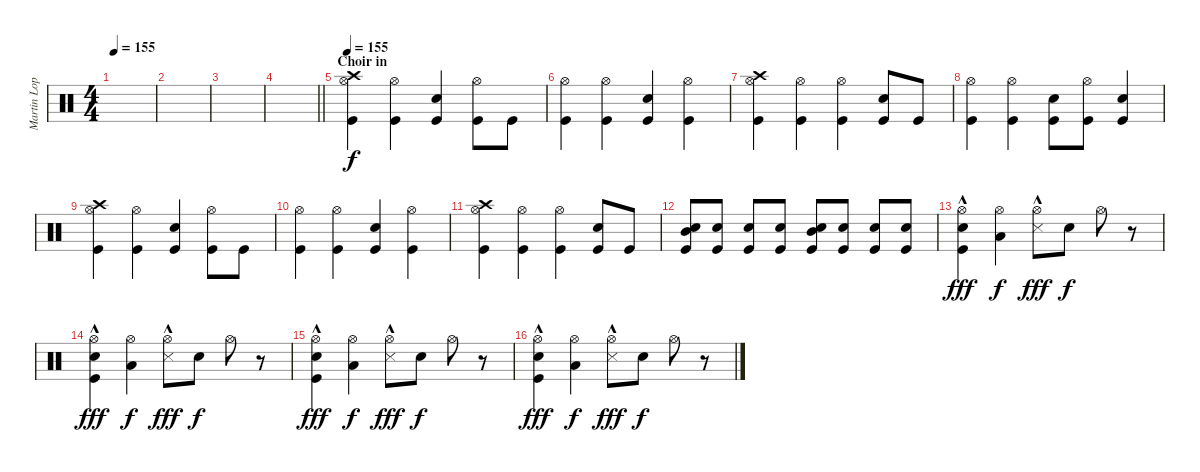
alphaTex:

\track ("Martin Lopez" "Martin Lop") {instrument percussion}
\staff {score}
\articulation defaults
\ts (4 4)
\tempo 155
\clef neutral
\ks c
|
|
|
\barLineRight lightlight
|
\section ("" "Choir in")
\tempo 155
("Crash high (hit)" "Hi-Hat (open)" "Kick (hit)").4{dy f} ("Hi-Hat (open)" "Kick (hit)").4 ("Electric Snare (hit)" "Kick (hit)").4 ("Hi-Hat (open)" "Kick (hit)").8 "Kick (hit)".8 |
("Hi-Hat (open)" "Kick (hit)").4 ("Hi-Hat (open)" "Kick (hit)").4 ("Electric Snare (hit)" "Kick (hit)").4 ("Hi-Hat (open)" "Kick (hit)").4 |
("Crash high (hit)" "Hi-Hat (open)" "Kick (hit)").4 ("Hi-Hat (open)" "Kick (hit)").4 ("Hi-Hat (open)" "Kick (hit)").4 ("Electric Snare (hit)" "Kick (hit)").8 "Kick (hit)".8 |
("Hi-Hat (open)" "Kick (hit)").4 ("Hi-Hat (open)" "Kick (hit)").4 ("Electric Snare (hit)" "Kick (hit)").8 ("Hi-Hat (open)" "Kick (hit)").8 ("Electric Snare (hit)" "Kick (hit)").4 |
("Crash high (hit)" "Hi-Hat (open)" "Kick (hit)").4 ("Hi-Hat (open)" "Kick (hit)").4 ("Electric Snare (hit)" "Kick (hit)").4 ("Hi-Hat (open)" "Kick (hit)").8 "Kick (hit)".8 |
("Hi-Hat (open)" "Kick (hit)").4 ("Hi-Hat (open)" "Kick (hit)").4 ("Electric Snare (hit)" "Kick (hit)").4 ("Hi-Hat (open)" "Kick (hit)").4 |
("Crash high (hit)" "Hi-Hat (open)" "Kick (hit)").4 ("Hi-Hat (open)" "Kick (hit)").4 ("Hi-Hat (open)" "Kick (hit)").4 ("Electric Snare (hit)" "Kick (hit)").8 "Kick (hit)".8 |
("Mid Tom (hit)" "Electric Snare (hit)" "Kick (hit)").8 ("Electric Snare (hit)" "Kick (hit)").8 ("Electric Snare (hit)" "Kick (hit)").8 ("Electric Snare (hit)" "Kick (hit)").8 ("Mid Tom (hit)" "Electric Snare (hit)" "Kick (hit)").8 ("Electric Snare (hit)" "Kick (hit)").8 ("Electric Snare (hit)" "Kick (hit)").8 ("Electric Snare (hit)" "Kick (hit)").8 |
("Hi-Hat (open)" "Electric Snare (hit)" "Kick (hit)"{hac}).4{dy fff} ("Hi-Hat (open)" "Low Tom (hit)").4{dy f} ("Hi-Hat (open)"{hac} "Snare (side stick) 3"{hac}).8{dy fff} "Electric Snare (hit)".8{dy f} "Hi-Hat (open)".8 r.8 |
("Hi-Hat (open)" "Electric Snare (hit)" "Kick (hit)"{hac}).4{dy fff} ("Hi-Hat (open)" "Low Tom (hit)").4{dy f} ("Hi-Hat (open)"{hac} "Snare (side stick) 3"{hac}).8{dy fff} "Electric Snare (hit)".8{dy f} "Hi-Hat (open)".8 r.8 |
("Hi-Hat (open)" "Electric Snare (hit)" "Kick (hit)"{hac}).4{dy fff} ("Hi-Hat (open)" "Low Tom (hit)").4{dy f} ("Hi-Hat (open)"{hac} "Snare (side stick) 3"{hac}).8{dy fff} "Electric Snare (hit)".8{dy f} "Hi-Hat (open)".8 r.8 |
("Hi-Hat (open)" "Electric Snare (hit)" "Kick (hit)"{hac}).4{dy fff} ("Hi-Hat (open)" "Low Tom (hit)").4{dy f} ("Hi-Hat (open)"{hac} "Snare (side stick) 3"{hac}).8{dy fff} "Electric Snare (hit)".8{dy f} "Hi-Hat (open)".8 r.8
